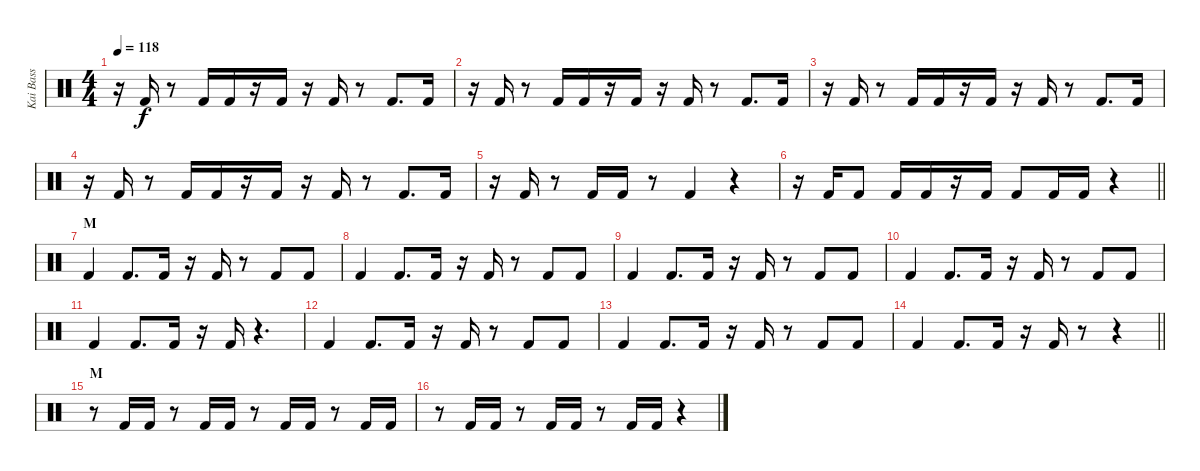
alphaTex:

\track ("Kai Bass" "Kai Bass") {instrument percussion}
\staff {score}
\articulation defaults
\ts (4 4)
\tempo 118
\clef neutral
\ks c
r.16{dy f} "Kick (hit) 2".16 r.8 "Kick (hit) 2".16 "Kick (hit) 2".16 r.16 "Kick (hit) 2".16 r.16 "Kick (hit) 2".16 r.8 "Kick (hit) 2".8{d} "Kick (hit) 2".16 |
r.16 "Kick (hit) 2".16 r.8 "Kick (hit) 2".16 "Kick (hit) 2".16 r.16 "Kick (hit) 2".16 r.16 "Kick (hit) 2".16 r.8 "Kick (hit) 2".8{d} "Kick (hit) 2".16 |
r.16 "Kick (hit) 2".16 r.8 "Kick (hit) 2".16 "Kick (hit) 2".16 r.16 "Kick (hit) 2".16 r.16 "Kick (hit) 2".16 r.8 "Kick (hit) 2".8{d} "Kick (hit) 2".16 |
r.16 "Kick (hit) 2".16 r.8 "Kick (hit) 2".16 "Kick (hit) 2".16 r.16 "Kick (hit) 2".16 r.16 "Kick (hit) 2".16 r.8 "Kick (hit) 2".8{d} "Kick (hit) 2".16 |
r.16 "Kick (hit) 2".16 r.8 "Kick (hit) 2".16 "Kick (hit) 2".16 r.8 "Kick (hit) 2".4 r.4 |
\barLineRight lightlight
r.16 "Kick (hit) 2".16 "Kick (hit) 2".8 "Kick (hit) 2".16 "Kick (hit) 2".16 r.16 "Kick (hit) 2".16 "Kick (hit) 2".8 "Kick (hit) 2".16 "Kick (hit) 2".16 r.4 |
\section ("" "M")
"Kick (hit) 2".4 "Kick (hit) 2".8{d} "Kick (hit) 2".16 r.16 "Kick (hit) 2".16 r.8 "Kick (hit) 2".8 "Kick (hit) 2".8 |
"Kick (hit) 2".4 "Kick (hit) 2".8{d} "Kick (hit) 2".16 r.16 "Kick (hit) 2".16 r.8 "Kick (hit) 2".8 "Kick (hit) 2".8 |
"Kick (hit) 2".4 "Kick (hit) 2".8{d} "Kick (hit) 2".16 r.16 "Kick (hit) 2".16 r.8 "Kick (hit) 2".8 "Kick (hit) 2".8 |
"Kick (hit) 2".4 "Kick (hit) 2".8{d} "Kick (hit) 2".16 r.16 "Kick (hit) 2".16 r.8 "Kick (hit) 2".8 "Kick (hit) 2".8 |
"Kick (hit) 2".4 "Kick (hit) 2".8{d} "Kick (hit) 2".16 r.16 "Kick (hit) 2".16 r.4{d} |
"Kick (hit) 2".4 "Kick (hit) 2".8{d} "Kick (hit) 2".16 r.16 "Kick (hit) 2".16 r.8 "Kick (hit) 2".8 "Kick (hit) 2".8 |
"Kick (hit) 2".4 "Kick (hit) 2".8{d} "Kick (hit) 2".16 r.16 "Kick (hit) 2".16 r.8 "Kick (hit) 2".8 "Kick (hit) 2".8 |
\barLineRight lightlight "Kick (hit) 2".4 "Kick (hit) 2".8{d} "Kick (hit) 2".16
r.16 "Kick (hit) 2".16 r.8 r.4 |
\section ("" "M")
r.8 "Kick (hit) 2".16 "Kick (hit) 2".16 r.8 "Kick (hit) 2".16 "Kick (hit) 2".16 r.8 "Kick (hit) 2".16 "Kick (hit) 2".16 r.8 "Kick (hit) 2".16 "Kick (hit) 2".16 |
r.8 "Kick (hit) 2".16 "Kick (hit) 2".16 r.8 "Kick (hit) 2".16 "Kick (hit) 2".16 r.8 "Kick (hit) 2".16 "Kick (hit) 2".16 r.4
